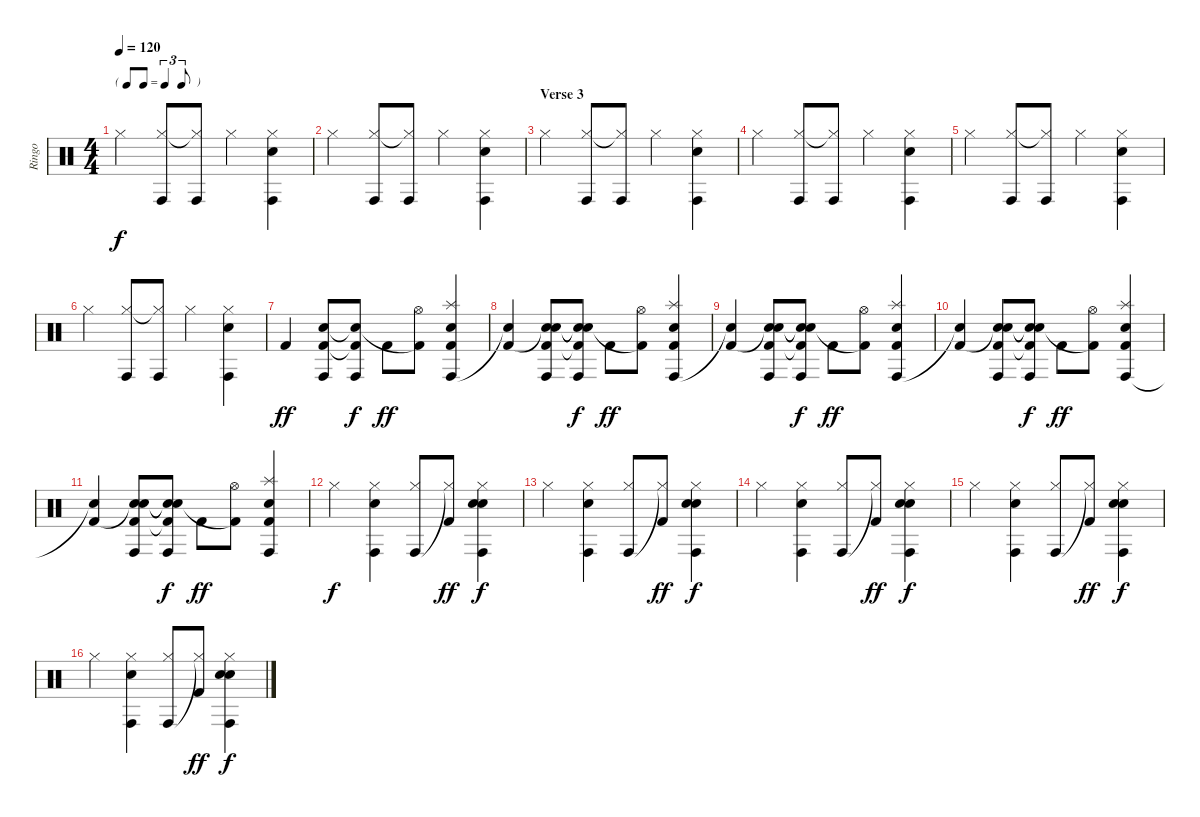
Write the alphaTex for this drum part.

\track ("Ringo" "Ringo") {instrument percussion}
\staff {score}
\articulation defaults
\ts (4 4)
\tf triplet8th
\tempo 120
\clef neutral
\ks c "Hi-Hat (closed)".4{dy f}
("Conga high (hit)" "Hi-Hat (closed)").8 ("Conga high (hit)" "Hi-Hat (closed)"{t}).8 "Hi-Hat (closed)".4 ("Conga high (hit)" "Hi-Hat (closed)" "Hand Clap (hit)").4 |
"Hi-Hat (closed)".4 ("Conga high (hit)" "Hi-Hat (closed)").8 ("Conga high (hit)" "Hi-Hat (closed)"{t}).8 "Hi-Hat (closed)".4 ("Conga high (hit)" "Hi-Hat (closed)" "Hand Clap (hit)").4 |
\section ("" "Verse 3")
"Hi-Hat (closed)".4 ("Conga high (hit)" "Hi-Hat (closed)").8 ("Conga high (hit)" "Hi-Hat (closed)"{t}).8 "Hi-Hat (closed)".4 ("Conga high (hit)" "Hi-Hat (closed)" "Hand Clap (hit)").4 |
"Hi-Hat (closed)".4 ("Conga high (hit)" "Hi-Hat (closed)").8 ("Conga high (hit)" "Hi-Hat (closed)"{t}).8 "Hi-Hat (closed)".4 ("Conga high (hit)" "Hi-Hat (closed)" "Hand Clap (hit)").4 |
"Hi-Hat (closed)".4 ("Conga high (hit)" "Hi-Hat (closed)").8 ("Conga high (hit)" "Hi-Hat (closed)"{t}).8 "Hi-Hat (closed)".4 ("Conga high (hit)" "Hi-Hat (closed)" "Hand Clap (hit)").4 |
"Hi-Hat (closed)".4 ("Conga high (hit)" "Hi-Hat (closed)").8 ("Conga high (hit)" "Hi-Hat (closed)"{t}).8 "Hi-Hat (closed)".4 ("Conga high (hit)" "Hi-Hat (closed)" "Hand Clap (hit)").4 |
"Kick (hit) 2".4{dy ff} ("Conga high (hit)" "Snare (hit) 2" "Kick (hit) 2").8 ("Conga high (hit)" "Snare (hit) 2"{t} "Kick (hit) 2"{t}).8{dy f} "Kick (hit) 2".8{dy ff} ("Hi-Hat (open)" "Kick (hit) 2"{t}).8 ("Conga high (hit)" "Splash (hit)" "Hand Clap (hit)" "Kick (hit) 2").4 |
("Snare (hit)"{t} "Kick (hit) 2").4 ("Conga high (hit)" "Snare (hit)"{t} "Snare (hit) 2" "Kick (hit) 2").8 ("Conga high (hit)" "Snare (hit)"{t} "Snare (hit) 2"{t} "Kick (hit) 2"{t}).8{dy f} "Kick (hit) 2".8{dy ff} ("Hi-Hat (open)" "Kick (hit) 2"{t}).8 ("Conga high (hit)" "Splash (hit)" "Hand Clap (hit)" "Kick (hit) 2").4 |
("Snare (hit)"{t} "Kick (hit) 2").4 ("Conga high (hit)" "Snare (hit)"{t} "Snare (hit) 2" "Kick (hit) 2").8 ("Conga high (hit)" "Snare (hit)"{t} "Snare (hit) 2"{t} "Kick (hit) 2"{t}).8{dy f} "Kick (hit) 2".8{dy ff} ("Hi-Hat (open)" "Kick (hit) 2"{t}).8 ("Conga high (hit)" "Splash (hit)" "Hand Clap (hit)" "Kick (hit) 2").4 |
("Snare (hit)"{t} "Kick (hit) 2").4 ("Conga high (hit)" "Snare (hit)"{t} "Snare (hit) 2" "Kick (hit) 2").8 ("Conga high (hit)" "Snare (hit)"{t} "Snare (hit) 2"{t} "Kick (hit) 2"{t}).8{dy f} "Kick (hit) 2".8{dy ff} ("Hi-Hat (open)" "Kick (hit) 2"{t}).8 ("Conga high (hit)" "Splash (hit)" "Hand Clap (hit)" "Kick (hit) 2").4 |
("Snare (hit)"{t} "Kick (hit) 2").4 ("Conga high (hit)" "Snare (hit)"{t} "Snare (hit) 2" "Kick (hit) 2").8 ("Conga high (hit)" "Snare (hit)"{t} "Snare (hit) 2"{t} "Kick (hit) 2"{t}).8{dy f} "Kick (hit) 2".8{dy ff} ("Hi-Hat (open)" "Kick (hit) 2"{t}).8 ("Conga high (hit)" "Splash (hit)" "Hand Clap (hit)" "Kick (hit) 2").4 |
"Hi-Hat (closed)".4{dy f} ("Conga high (hit)" "Hi-Hat (closed)" "Snare (hit) 2").4 ("Conga high (hit)" "Hi-Hat (closed)").8 ("Hi-Hat (closed)"{t} "Kick (hit) 2").8{dy ff} ("Conga high (hit)" "Hi-Hat (closed)" "Snare (hit) 2" "Hand Clap (hit)").4{dy f} |
"Hi-Hat (closed)".4 ("Conga high (hit)" "Hi-Hat (closed)" "Snare (hit) 2").4 ("Conga high (hit)" "Hi-Hat (closed)").8 ("Hi-Hat (closed)"{t} "Kick (hit) 2").8{dy ff} ("Conga high (hit)" "Hi-Hat (closed)" "Snare (hit) 2" "Hand Clap (hit)").4{dy f} |
"Hi-Hat (closed)".4 ("Conga high (hit)" "Hi-Hat (closed)" "Snare (hit) 2").4 ("Conga high (hit)" "Hi-Hat (closed)").8 ("Hi-Hat (closed)"{t} "Kick (hit) 2").8{dy ff} ("Conga high (hit)" "Hi-Hat (closed)" "Snare (hit) 2" "Hand Clap (hit)").4{dy f} |
"Hi-Hat (closed)".4 ("Conga high (hit)" "Hi-Hat (closed)" "Snare (hit) 2").4 ("Conga high (hit)" "Hi-Hat (closed)").8 ("Hi-Hat (closed)"{t} "Kick (hit) 2").8{dy ff} ("Conga high (hit)" "Hi-Hat (closed)" "Snare (hit) 2" "Hand Clap (hit)").4{dy f} |
"Hi-Hat (closed)".4 ("Conga high (hit)" "Hi-Hat (closed)" "Snare (hit) 2").4 ("Conga high (hit)" "Hi-Hat (closed)").8 ("Hi-Hat (closed)"{t} "Kick (hit) 2").8{dy ff} ("Conga high (hit)" "Hi-Hat (closed)" "Snare (hit) 2" "Hand Clap (hit)").4{dy f}
